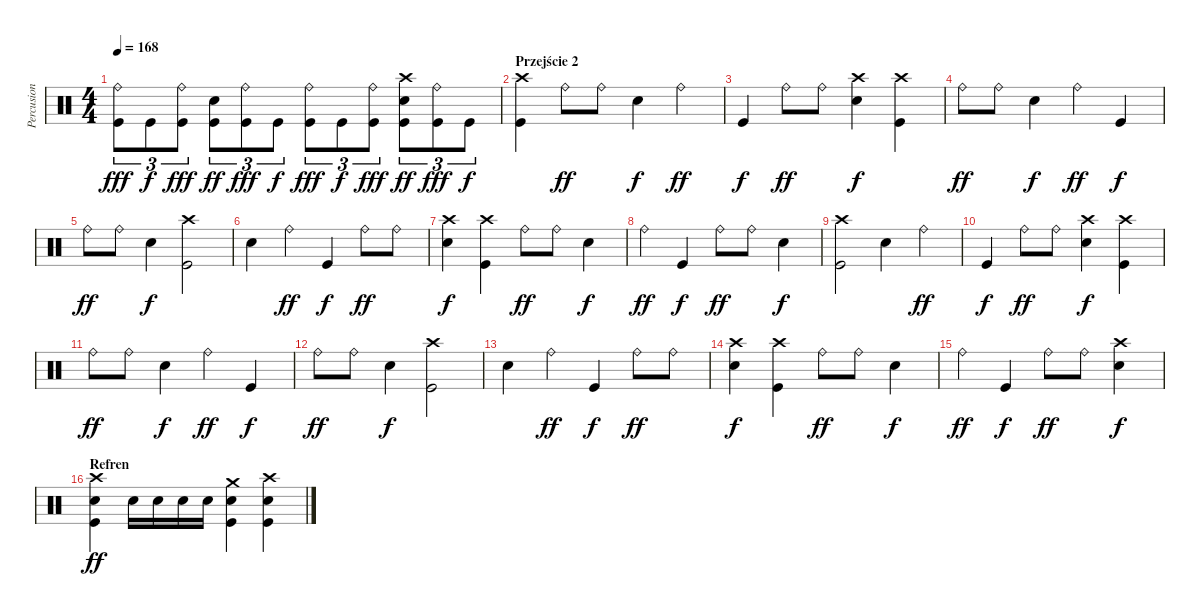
\track ("Percusion" "Percusion") {instrument percussion}
\staff {score}
\articulation defaults
\ts (4 4)
\tempo 168
\clef neutral
\ks c
("Ride (bell)" "Kick (hit)").8{tu (3 2) dy fff} "Kick (hit)".8{tu (3 2) dy f} ("Ride (bell)" "Kick (hit)").8{tu (3 2) dy fff} ("Snare (hit) 2" "Kick (hit)").8{tu (3 2) dy ff} ("Ride (bell)" "Kick (hit)").8{tu (3 2) dy fff} "Kick (hit)".8{tu (3 2) dy f} ("Ride (bell)" "Kick (hit)").8{tu (3 2) dy fff} "Kick (hit)".8{tu (3 2) dy f} ("Ride (bell)" "Kick (hit)").8{tu (3 2) dy fff} ("Crash high (hit)" "Snare (hit) 2" "Kick (hit)").8{tu (3 2) dy ff} ("Ride (bell)" "Kick (hit)").8{tu (3 2) dy fff} "Kick (hit)".8{tu (3 2) dy f} |
\section ("" "Przejście 2")
("Crash high (hit)" "Kick (hit)").4 "Ride (bell)".8{dy ff} "Ride (bell)".8 "Snare (hit) 2".4{dy f} "Ride (bell)".4{dy ff} |
"Kick (hit)".4{dy f} "Ride (bell)".8{dy ff} "Ride (bell)".8 ("Crash high (hit)" "Snare (hit) 2").4{dy f} ("Crash high (hit)" "Kick (hit)").4 |
"Ride (bell)".8{dy ff} "Ride (bell)".8 "Snare (hit) 2".4{dy f} "Ride (bell)".4{dy ff} "Kick (hit)".4{dy f} |
"Ride (bell)".8{dy ff} "Ride (bell)".8 "Snare (hit) 2".4{dy f} ("Crash high (hit)" "Kick (hit)").2 |
"Snare (hit) 2".4 "Ride (bell)".4{dy ff} "Kick (hit)".4{dy f} "Ride (bell)".8{dy ff} "Ride (bell)".8 |
("Crash high (hit)" "Snare (hit) 2").4{dy f} ("Crash high (hit)" "Kick (hit)").4 "Ride (bell)".8{dy ff} "Ride (bell)".8 "Snare (hit) 2".4{dy f} |
"Ride (bell)".4{dy ff} "Kick (hit)".4{dy f} "Ride (bell)".8{dy ff} "Ride (bell)".8 "Snare (hit) 2".4{dy f} |
("Crash high (hit)" "Kick (hit)").2 "Snare (hit) 2".4 "Ride (bell)".4{dy ff} |
"Kick (hit)".4{dy f} "Ride (bell)".8{dy ff} "Ride (bell)".8 ("Crash high (hit)" "Snare (hit) 2").4{dy f} ("Crash high (hit)" "Kick (hit)").4 |
"Ride (bell)".8{dy ff} "Ride (bell)".8 "Snare (hit) 2".4{dy f} "Ride (bell)".4{dy ff} "Kick (hit)".4{dy f} |
"Ride (bell)".8{dy ff} "Ride (bell)".8 "Snare (hit) 2".4{dy f} ("Crash high (hit)" "Kick (hit)").2 |
"Snare (hit) 2".4 "Ride (bell)".4{dy ff} "Kick (hit)".4{dy f} "Ride (bell)".8{dy ff} "Ride (bell)".8 |
("Crash high (hit)" "Snare (hit) 2").4{dy f} ("Crash high (hit)" "Kick (hit)").4 "Ride (bell)".8{dy ff} "Ride (bell)".8 "Snare (hit) 2".4{dy f} |
"Ride (bell)".4{dy ff} "Kick (hit)".4{dy f} "Ride (bell)".8{dy ff} "Ride (bell)".8 ("Crash high (hit)" "Snare (hit) 2").4{dy f} |
\section ("" "Refren")
("Crash high (hit)" "Snare (hit) 2" "Kick (hit)").4{dy ff} "Snare (hit) 2".16 "Snare (hit) 2".16 "Snare (hit) 2".16 "Snare (hit) 2".16 ("Crash medium (hit)" "Snare (hit) 2" "Kick (hit)").4 ("Crash high (hit)" "Snare (hit) 2" "Kick (hit)").4
